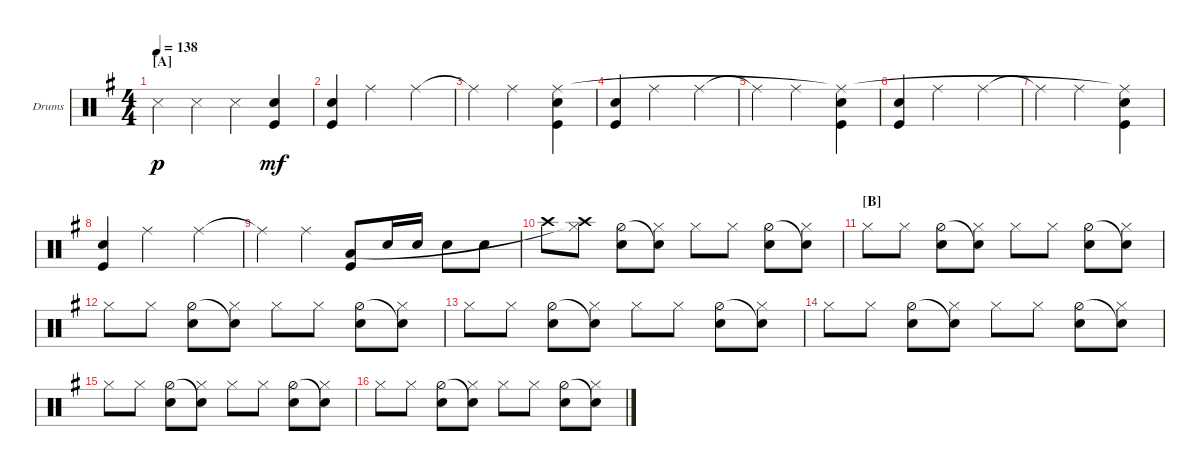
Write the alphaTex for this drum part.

\defaultSystemsLayout 4
\bracketExtendMode groupsimilarinstruments
\firstSystemTrackNameOrientation horizontal
\otherSystemsTrackNameOrientation horizontal
\track ("Drumkit" "Drums") {instrument percussion}
\staff {score}
\articulation defaults
\ts (4 4)
\section ("A" "")
\tempo 138
\clef neutral
\ks g "Snare (side stick) 3".4{dy p} "Snare (side stick) 3".4 "Snare (side stick) 3".4
("Snare (hit) 2" "Kick (hit)").4{dy mf} |
("Snare (hit) 2" "Kick (hit)").4 "Ride (middle)".2 "Ride (middle)".4 |
"Ride (middle)"{t}.4 "Ride (middle)".2 ("Snare (hit) 2" "Kick (hit)" "Ride (middle)").4 |
("Snare (hit) 2" "Kick (hit)").4 "Ride (middle)".2 "Ride (middle)".4 |
"Ride (middle)"{t}.4 "Ride (middle)".2 ("Snare (hit) 2" "Kick (hit)" "Ride (middle)"{t}).4 |
("Snare (hit) 2" "Kick (hit)").4 "Ride (middle)".2 "Ride (middle)".4 |
"Ride (middle)"{t}.4 "Ride (middle)".2 ("Snare (hit) 2" "Kick (hit)" "Ride (middle)"{t}).4 |
("Snare (hit) 2" "Kick (hit)").4 "Ride (middle)".2 "Ride (middle)".4 |
"Ride (middle)"{t}.4 "Ride (middle)".4 ("Kick (hit)" "Low Tom (hit)").8 "Snare (hit) 2".16 "Snare (hit) 2".16 "Snare (hit) 2".8 "Snare (hit) 2".8 |
"Crash high (hit)".8 ("Hi-Hat (closed)" "Crash high (hit)"{t}).8 ("Snare (hit) 2" "Hi-Hat (half)").8 ("Hi-Hat (closed)" "Snare (hit) 2"{t}).8 "Hi-Hat (closed)".8 "Hi-Hat (closed)".8 ("Snare (hit) 2" "Hi-Hat (half)").8 ("Hi-Hat (closed)" "Snare (hit) 2"{t}).8 |
\section ("B" "")
"Hi-Hat (closed)".8 "Hi-Hat (closed)".8 ("Hi-Hat (half)" "Snare (hit) 2").8 ("Snare (hit) 2"{t} "Hi-Hat (closed)").8 "Hi-Hat (closed)".8 "Hi-Hat (closed)".8 ("Hi-Hat (half)" "Snare (hit) 2").8 ("Snare (hit) 2"{t} "Hi-Hat (closed)").8 |
"Hi-Hat (closed)".8 "Hi-Hat (closed)".8 ("Hi-Hat (half)" "Snare (hit) 2").8 ("Snare (hit) 2"{t} "Hi-Hat (closed)").8 "Hi-Hat (closed)".8 "Hi-Hat (closed)".8 ("Hi-Hat (half)" "Snare (hit) 2").8 ("Snare (hit) 2"{t} "Hi-Hat (closed)").8 |
"Hi-Hat (closed)".8 "Hi-Hat (closed)".8 ("Hi-Hat (half)" "Snare (hit) 2").8 ("Snare (hit) 2"{t} "Hi-Hat (closed)").8 "Hi-Hat (closed)".8 "Hi-Hat (closed)".8 ("Hi-Hat (half)" "Snare (hit) 2").8 ("Snare (hit) 2"{t} "Hi-Hat (closed)").8 |
"Hi-Hat (closed)".8 "Hi-Hat (closed)".8 ("Hi-Hat (half)" "Snare (hit) 2").8 ("Snare (hit) 2"{t} "Hi-Hat (closed)").8 "Hi-Hat (closed)".8 "Hi-Hat (closed)".8 ("Hi-Hat (half)" "Snare (hit) 2").8 ("Snare (hit) 2"{t} "Hi-Hat (closed)").8 |
"Hi-Hat (closed)".8 "Hi-Hat (closed)".8 ("Hi-Hat (half)" "Snare (hit) 2").8 ("Snare (hit) 2"{t} "Hi-Hat (closed)").8 "Hi-Hat (closed)".8 "Hi-Hat (closed)".8 ("Hi-Hat (half)" "Snare (hit) 2").8 ("Snare (hit) 2"{t} "Hi-Hat (closed)").8 |
"Hi-Hat (closed)".8 "Hi-Hat (closed)".8 ("Hi-Hat (half)" "Snare (hit) 2").8 ("Snare (hit) 2"{t} "Hi-Hat (closed)").8 "Hi-Hat (closed)".8 "Hi-Hat (closed)".8 ("Hi-Hat (half)" "Snare (hit) 2").8 ("Snare (hit) 2"{t} "Hi-Hat (closed)").8
